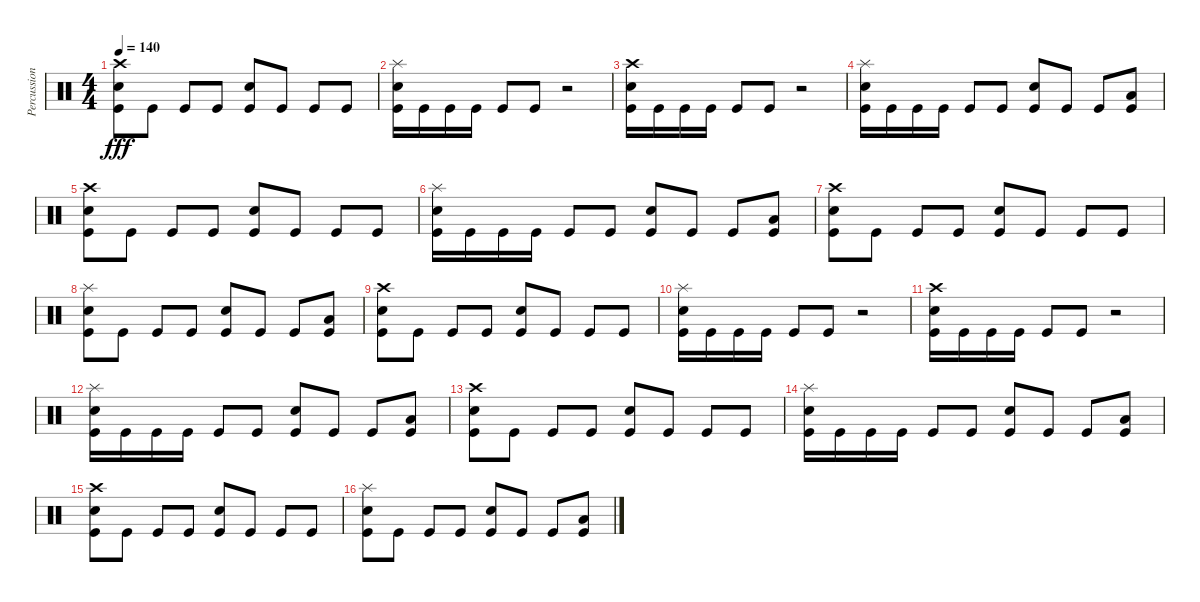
\track ("Percussion" "Percussion") {instrument percussion}
\staff {score}
\articulation defaults
\ts (4 4)
\tempo 140
\clef neutral
\ks c
("Crash high (hit)" "Snare (hit) 2" "Kick (hit)").8{dy fff} "Kick (hit)".8 "Kick (hit)".8 "Kick (hit)".8 ("Snare (hit) 2" "Kick (hit)").8 "Kick (hit)".8 "Kick (hit)".8 "Kick (hit)".8 |
("Splash (hit)" "Snare (hit) 2" "Kick (hit)").16 "Kick (hit)".16 "Kick (hit)".16 "Kick (hit)".16 "Kick (hit)".8 "Kick (hit)".8 r.2 |
("Crash high (hit)" "Snare (hit) 2" "Kick (hit)").16 "Kick (hit)".16 "Kick (hit)".16 "Kick (hit)".16 "Kick (hit)".8 "Kick (hit)".8 r.2 |
("Splash (hit)" "Snare (hit) 2" "Kick (hit)").16 "Kick (hit)".16 "Kick (hit)".16 "Kick (hit)".16 "Kick (hit)".8 "Kick (hit)".8 ("Snare (hit) 2" "Kick (hit)").8 "Kick (hit)".8 "Kick (hit)".8 ("Low Floor Tom (hit)" "Kick (hit)").8 |
("Crash high (hit)" "Snare (hit) 2" "Kick (hit)").8 "Kick (hit)".8 "Kick (hit)".8 "Kick (hit)".8 ("Snare (hit) 2" "Kick (hit)").8 "Kick (hit)".8 "Kick (hit)".8 "Kick (hit)".8 |
("Splash (hit)" "Snare (hit) 2" "Kick (hit)").16 "Kick (hit)".16 "Kick (hit)".16 "Kick (hit)".16 "Kick (hit)".8 "Kick (hit)".8 ("Snare (hit) 2" "Kick (hit)").8 "Kick (hit)".8 "Kick (hit)".8 ("Low Floor Tom (hit)" "Kick (hit)").8 |
("Crash high (hit)" "Snare (hit) 2" "Kick (hit)").8 "Kick (hit)".8 "Kick (hit)".8 "Kick (hit)".8 ("Snare (hit) 2" "Kick (hit)").8 "Kick (hit)".8 "Kick (hit)".8 "Kick (hit)".8 |
("Splash (hit)" "Snare (hit) 2" "Kick (hit)").8 "Kick (hit)".8 "Kick (hit)".8 "Kick (hit)".8 ("Snare (hit) 2" "Kick (hit)").8 "Kick (hit)".8 "Kick (hit)".8 ("Low Floor Tom (hit)" "Kick (hit)").8 |
("Crash high (hit)" "Snare (hit) 2" "Kick (hit)").8 "Kick (hit)".8 "Kick (hit)".8 "Kick (hit)".8 ("Snare (hit) 2" "Kick (hit)").8 "Kick (hit)".8 "Kick (hit)".8 "Kick (hit)".8 |
("Splash (hit)" "Snare (hit) 2" "Kick (hit)").16 "Kick (hit)".16 "Kick (hit)".16 "Kick (hit)".16 "Kick (hit)".8 "Kick (hit)".8 r.2 |
("Crash high (hit)" "Snare (hit) 2" "Kick (hit)").16 "Kick (hit)".16 "Kick (hit)".16 "Kick (hit)".16 "Kick (hit)".8 "Kick (hit)".8 r.2 |
("Splash (hit)" "Snare (hit) 2" "Kick (hit)").16 "Kick (hit)".16 "Kick (hit)".16 "Kick (hit)".16 "Kick (hit)".8 "Kick (hit)".8 ("Snare (hit) 2" "Kick (hit)").8 "Kick (hit)".8 "Kick (hit)".8 ("Low Floor Tom (hit)" "Kick (hit)").8 |
("Crash high (hit)" "Snare (hit) 2" "Kick (hit)").8 "Kick (hit)".8 "Kick (hit)".8 "Kick (hit)".8 ("Snare (hit) 2" "Kick (hit)").8 "Kick (hit)".8 "Kick (hit)".8 "Kick (hit)".8 |
("Splash (hit)" "Snare (hit) 2" "Kick (hit)").16 "Kick (hit)".16 "Kick (hit)".16 "Kick (hit)".16 "Kick (hit)".8 "Kick (hit)".8 ("Snare (hit) 2" "Kick (hit)").8 "Kick (hit)".8 "Kick (hit)".8 ("Low Floor Tom (hit)" "Kick (hit)").8 |
("Crash high (hit)" "Snare (hit) 2" "Kick (hit)").8 "Kick (hit)".8 "Kick (hit)".8 "Kick (hit)".8 ("Snare (hit) 2" "Kick (hit)").8 "Kick (hit)".8 "Kick (hit)".8 "Kick (hit)".8 |
("Splash (hit)" "Snare (hit) 2" "Kick (hit)").8 "Kick (hit)".8 "Kick (hit)".8 "Kick (hit)".8 ("Snare (hit) 2" "Kick (hit)").8 "Kick (hit)".8 "Kick (hit)".8 ("Low Floor Tom (hit)" "Kick (hit)").8
